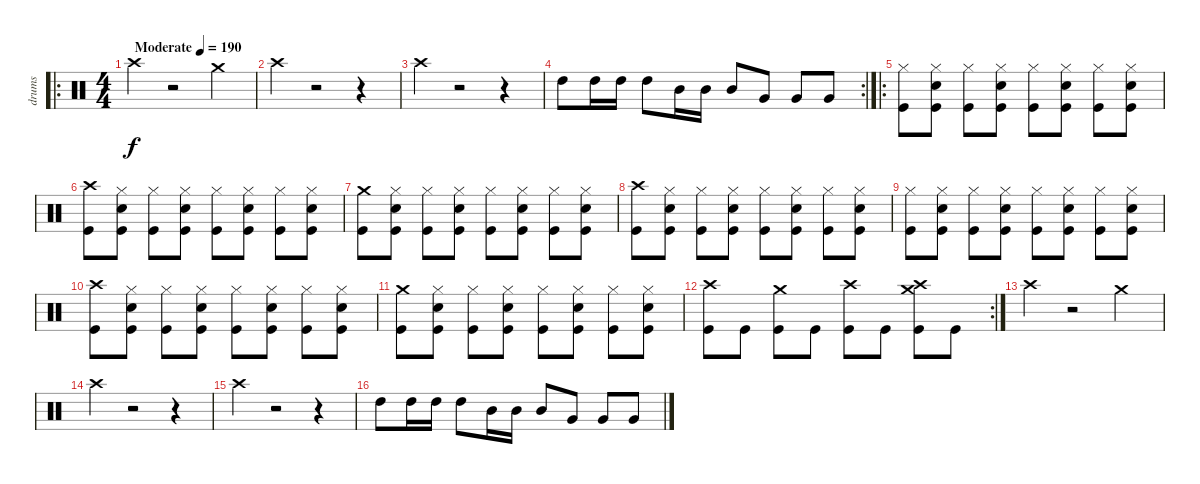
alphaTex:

\track ("drums" "drums") {instrument percussion}
\staff {score}
\articulation defaults
\ro
\ts (4 4)
\tempo (190 "Moderate")
\clef neutral
\ks c "Crash high (hit)".4{dy f}
r.2 "Crash medium (hit)".4 |
"Crash high (hit)".4 r.2 r.4 |
"Crash high (hit)".4 r.2 r.4 |
\rc 2 "High Tom (hit)".8 "High Tom (hit)".16 "High Tom (hit)".16 "High Tom (hit)".8 "Mid Tom (hit)".16 "Mid Tom (hit)".16 "Mid Tom (hit)".8 "Very Low Tom (hit)".8 "Very Low Tom (hit)".8 "Very Low Tom (hit)".8
|
\ro
("Hi-Hat (closed)" "Kick (hit)").8 ("Hi-Hat (closed)" "Snare (hit) 2" "Kick (hit)").8 ("Hi-Hat (closed)" "Kick (hit)").8 ("Hi-Hat (closed)" "Snare (hit) 2" "Kick (hit)").8 ("Hi-Hat (closed)" "Kick (hit)").8 ("Hi-Hat (closed)" "Snare (hit) 2" "Kick (hit)").8 ("Hi-Hat (closed)" "Kick (hit)").8 ("Hi-Hat (closed)" "Snare (hit) 2" "Kick (hit)").8 |
("Crash high (hit)" "Kick (hit)").8 ("Hi-Hat (closed)" "Snare (hit) 2" "Kick (hit)").8 ("Hi-Hat (closed)" "Kick (hit)").8 ("Hi-Hat (closed)" "Snare (hit) 2" "Kick (hit)").8 ("Hi-Hat (closed)" "Kick (hit)").8 ("Hi-Hat (closed)" "Snare (hit) 2" "Kick (hit)").8 ("Hi-Hat (closed)" "Kick (hit)").8 ("Hi-Hat (closed)" "Snare (hit) 2" "Kick (hit)").8 |
("Crash medium (hit)" "Kick (hit)").8 ("Hi-Hat (closed)" "Snare (hit) 2" "Kick (hit)").8 ("Hi-Hat (closed)" "Kick (hit)").8 ("Hi-Hat (closed)" "Snare (hit) 2" "Kick (hit)").8 ("Hi-Hat (closed)" "Kick (hit)").8 ("Hi-Hat (closed)" "Snare (hit) 2" "Kick (hit)").8 ("Hi-Hat (closed)" "Kick (hit)").8 ("Hi-Hat (closed)" "Snare (hit) 2" "Kick (hit)").8 |
("Crash high (hit)" "Kick (hit)").8 ("Hi-Hat (closed)" "Snare (hit) 2" "Kick (hit)").8 ("Hi-Hat (closed)" "Kick (hit)").8 ("Hi-Hat (closed)" "Snare (hit) 2" "Kick (hit)").8 ("Hi-Hat (closed)" "Kick (hit)").8 ("Hi-Hat (closed)" "Snare (hit) 2" "Kick (hit)").8 ("Hi-Hat (closed)" "Kick (hit)").8 ("Hi-Hat (closed)" "Snare (hit) 2" "Kick (hit)").8 |
("Hi-Hat (closed)" "Kick (hit)").8 ("Hi-Hat (closed)" "Snare (hit) 2" "Kick (hit)").8 ("Hi-Hat (closed)" "Kick (hit)").8 ("Hi-Hat (closed)" "Snare (hit) 2" "Kick (hit)").8 ("Hi-Hat (closed)" "Kick (hit)").8 ("Hi-Hat (closed)" "Snare (hit) 2" "Kick (hit)").8 ("Hi-Hat (closed)" "Kick (hit)").8 ("Hi-Hat (closed)" "Snare (hit) 2" "Kick (hit)").8 |
("Crash high (hit)" "Kick (hit)").8 ("Hi-Hat (closed)" "Snare (hit) 2" "Kick (hit)").8 ("Hi-Hat (closed)" "Kick (hit)").8 ("Hi-Hat (closed)" "Snare (hit) 2" "Kick (hit)").8 ("Hi-Hat (closed)" "Kick (hit)").8 ("Hi-Hat (closed)" "Snare (hit) 2" "Kick (hit)").8 ("Hi-Hat (closed)" "Kick (hit)").8 ("Hi-Hat (closed)" "Snare (hit) 2" "Kick (hit)").8 |
("Crash medium (hit)" "Kick (hit)").8 ("Hi-Hat (closed)" "Snare (hit) 2" "Kick (hit)").8 ("Hi-Hat (closed)" "Kick (hit)").8 ("Hi-Hat (closed)" "Snare (hit) 2" "Kick (hit)").8 ("Hi-Hat (closed)" "Kick (hit)").8 ("Hi-Hat (closed)" "Snare (hit) 2" "Kick (hit)").8 ("Hi-Hat (closed)" "Kick (hit)").8 ("Hi-Hat (closed)" "Snare (hit) 2" "Kick (hit)").8 |
\rc 2
("Crash high (hit)" "Kick (hit)").8 "Kick (hit)".8 ("Crash medium (hit)" "Kick (hit)").8 "Kick (hit)".8 ("Crash high (hit)" "Kick (hit)").8 "Kick (hit)".8 ("Crash high (hit)" "Crash medium (hit)" "Kick (hit)").8 "Kick (hit)".8 |
"Crash high (hit)".4 r.2 "Crash medium (hit)".4 |
"Crash high (hit)".4 r.2 r.4 |
"Crash high (hit)".4 r.2 r.4 |
"High Tom (hit)".8 "High Tom (hit)".16 "High Tom (hit)".16 "High Tom (hit)".8 "Mid Tom (hit)".16 "Mid Tom (hit)".16 "Mid Tom (hit)".8 "Very Low Tom (hit)".8 "Very Low Tom (hit)".8 "Very Low Tom (hit)".8
